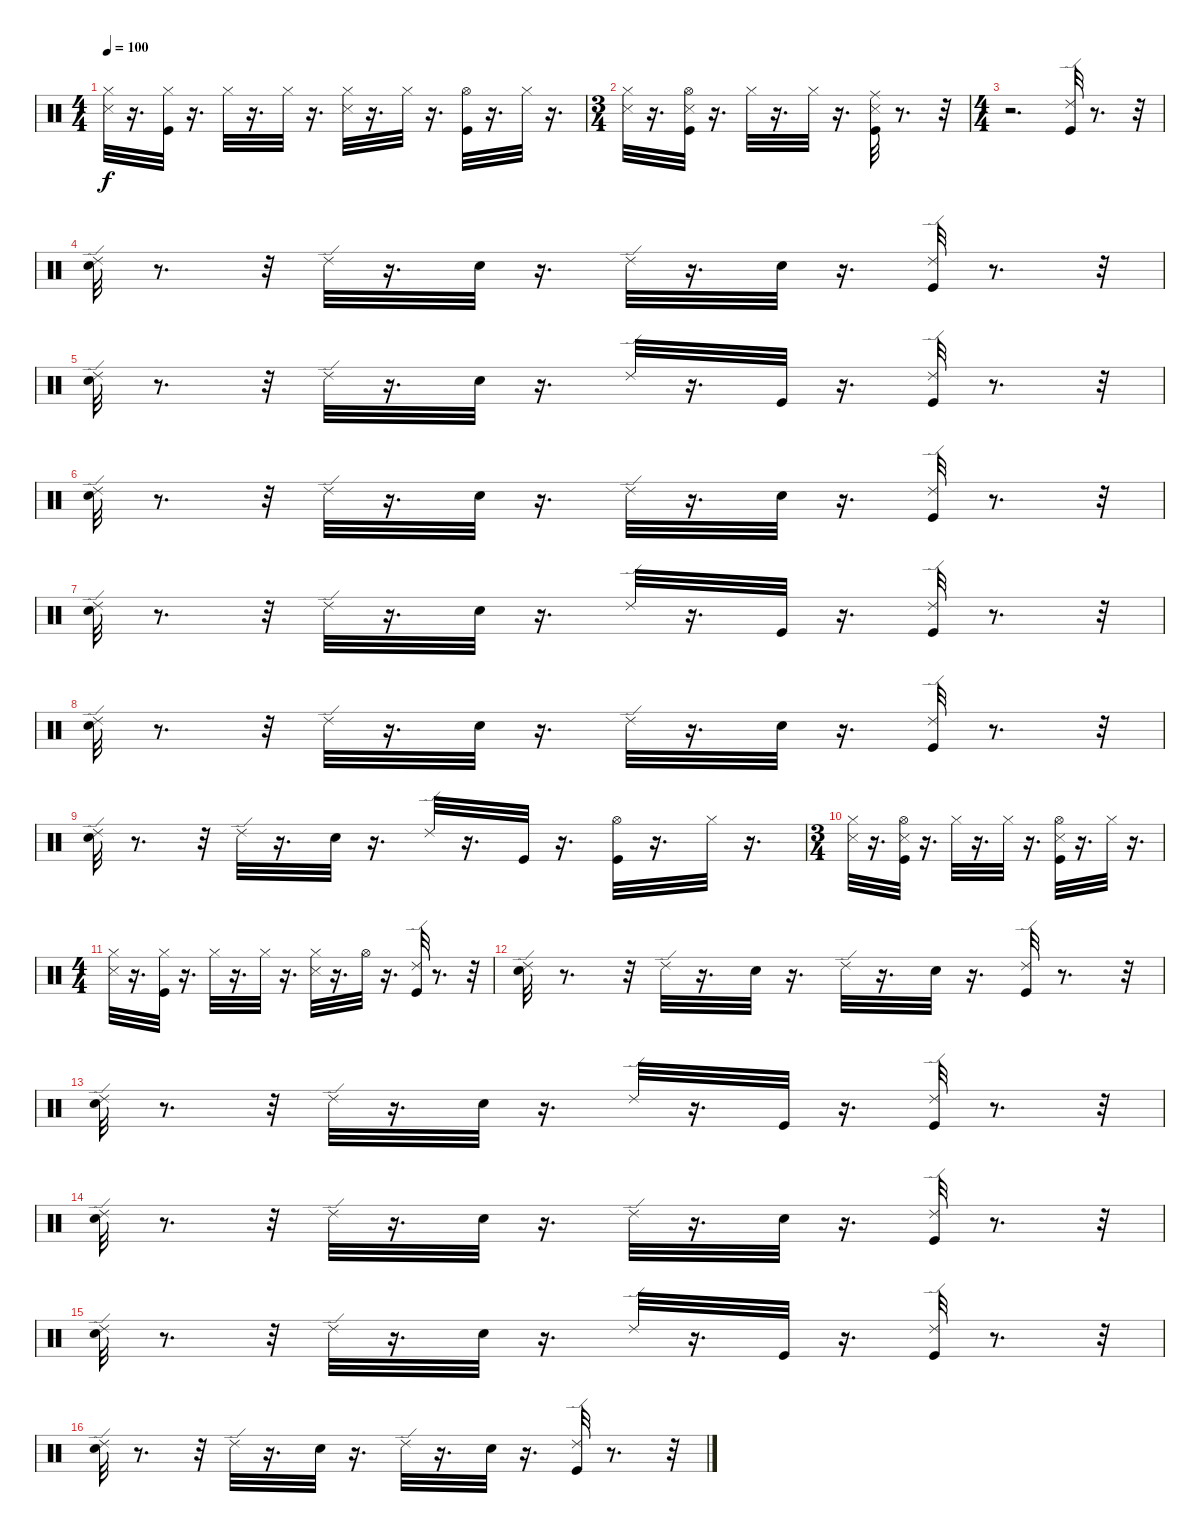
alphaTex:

\track "" {instrument percussion}
\staff {score}
\articulation defaults
\ts (4 4)
\tempo 100
\clef neutral
\ks c
("Snare (side stick) 3" "Hi-Hat (closed)").32{dy f} r.16{d} ("Hi-Hat (closed)" "Kick (hit)").32 r.16{d} "Hi-Hat (closed)".32 r.16{d} "Hi-Hat (closed)".32 r.16{d} ("Snare (side stick) 3" "Hi-Hat (closed)").32 r.16{d} "Hi-Hat (closed)".32 r.16{d} ("Kick (hit)" "Hi-Hat (open)").32 r.16{d} "Hi-Hat (closed)".32 r.16{d} |
\ts (3 4)
("Snare (side stick) 3" "Hi-Hat (closed)").32 r.16{d} ("Snare (side stick) 3" "Kick (hit)" "Hi-Hat (open)").32 r.16{d} "Hi-Hat (closed)".32 r.16{d} "Hi-Hat (closed)".32 r.16{d} ("Snare (side stick) 3" "Kick (hit)" "Ride (middle)").32 r.8{d} r.32 |
\ts (4 4)
r.2{d} ("Ride (edge) 2" "Kick (hit)").32 r.8{d} r.32 |
("Snare (hit) 2" "Ride (edge) 2").32 r.8{d} r.32 "Ride (edge) 2".32 r.16{d} "Snare (hit) 2".32 r.16{d} "Ride (edge) 2".32 r.16{d} "Snare (hit) 2".32 r.16{d} ("Kick (hit)" "Ride (edge) 2").32 r.8{d} r.32 |
("Ride (edge) 2" "Snare (hit) 2").32 r.8{d} r.32 "Ride (edge) 2".32 r.16{d} "Snare (hit) 2".32 r.16{d} "Ride (edge) 2".32 r.16{d} "Kick (hit)".32 r.16{d} ("Kick (hit)" "Ride (edge) 2").32 r.8{d} r.32 |
("Ride (edge) 2" "Snare (hit) 2").32 r.8{d} r.32 "Ride (edge) 2".32 r.16{d} "Snare (hit) 2".32 r.16{d} "Ride (edge) 2".32 r.16{d} "Snare (hit) 2".32 r.16{d} ("Ride (edge) 2" "Kick (hit)").32 r.8{d} r.32 |
("Snare (hit) 2" "Ride (edge) 2").32 r.8{d} r.32 "Ride (edge) 2".32 r.16{d} "Snare (hit) 2".32 r.16{d} "Ride (edge) 2".32 r.16{d} "Kick (hit)".32 r.16{d} ("Ride (edge) 2" "Kick (hit)").32 r.8{d} r.32 |
("Snare (hit) 2" "Ride (edge) 2").32 r.8{d} r.32 "Ride (edge) 2".32 r.16{d} "Snare (hit) 2".32 r.16{d} "Ride (edge) 2".32 r.16{d} "Snare (hit) 2".32 r.16{d} ("Kick (hit)" "Ride (edge) 2").32 r.8{d} r.32 |
("Ride (edge) 2" "Snare (hit) 2").32 r.8{d} r.32 "Ride (edge) 2".32 r.16{d} "Snare (hit) 2".32 r.16{d} "Ride (edge) 2".32 r.16{d} "Kick (hit)".32 r.16{d} ("Kick (hit)" "Hi-Hat (open)").32 r.16{d} "Hi-Hat (closed)".32 r.16{d} |
\ts (3 4)
("Snare (side stick) 3" "Hi-Hat (closed)").32 r.16{d} ("Snare (side stick) 3" "Kick (hit)" "Hi-Hat (open)").32 r.16{d} "Hi-Hat (closed)".32 r.16{d} "Hi-Hat (closed)".32 r.16{d} ("Snare (side stick) 3" "Kick (hit)" "Hi-Hat (open)").32 r.16{d} "Hi-Hat (closed)".32 r.16{d} |
\ts (4 4)
("Snare (side stick) 3" "Hi-Hat (closed)").32 r.16{d} ("Kick (hit)" "Hi-Hat (closed)").32 r.16{d} "Hi-Hat (closed)".32 r.16{d} "Hi-Hat (closed)".32 r.16{d} ("Snare (side stick) 3" "Hi-Hat (closed)").32 r.16{d} "Hi-Hat (open)".32 r.16{d} ("Ride (edge) 2" "Kick (hit)").32 r.8{d} r.32 |
("Snare (hit) 2" "Ride (edge) 2").32 r.8{d} r.32 "Ride (edge) 2".32 r.16{d} "Snare (hit) 2".32 r.16{d} "Ride (edge) 2".32 r.16{d} "Snare (hit) 2".32 r.16{d} ("Kick (hit)" "Ride (edge) 2").32 r.8{d} r.32 |
("Ride (edge) 2" "Snare (hit) 2").32 r.8{d} r.32 "Ride (edge) 2".32 r.16{d} "Snare (hit) 2".32 r.16{d} "Ride (edge) 2".32 r.16{d} "Kick (hit)".32 r.16{d} ("Kick (hit)" "Ride (edge) 2").32 r.8{d} r.32 |
("Ride (edge) 2" "Snare (hit) 2").32 r.8{d} r.32 "Ride (edge) 2".32 r.16{d} "Snare (hit) 2".32 r.16{d} "Ride (edge) 2".32 r.16{d} "Snare (hit) 2".32 r.16{d} ("Ride (edge) 2" "Kick (hit)").32 r.8{d} r.32 |
("Snare (hit) 2" "Ride (edge) 2").32 r.8{d} r.32 "Ride (edge) 2".32 r.16{d} "Snare (hit) 2".32 r.16{d} "Ride (edge) 2".32 r.16{d} "Kick (hit)".32 r.16{d} ("Ride (edge) 2" "Kick (hit)").32 r.8{d} r.32 |
("Snare (hit) 2" "Ride (edge) 2").32 r.8{d} r.32 "Ride (edge) 2".32 r.16{d} "Snare (hit) 2".32 r.16{d} "Ride (edge) 2".32 r.16{d} "Snare (hit) 2".32 r.16{d} ("Kick (hit)" "Ride (edge) 2").32 r.8{d} r.32
